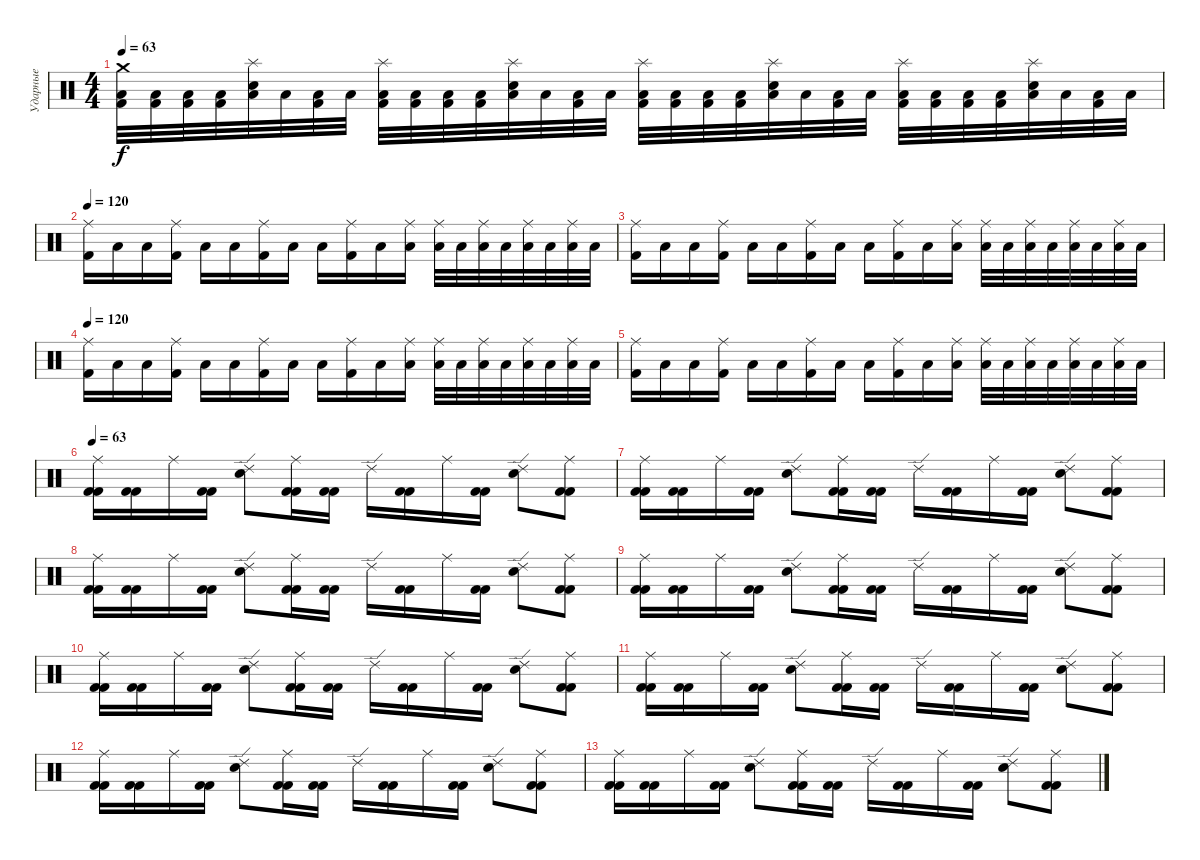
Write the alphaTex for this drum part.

\track ("Ударные" "Ударные") {instrument percussion}
\staff {score}
\articulation defaults
\ts (4 4)
\tempo 63
\clef neutral
\ks c
("Crash medium (hit)" "Low Floor Tom (hit)" "Kick (hit) 2").32{dy f} ("Low Floor Tom (hit)" "Kick (hit) 2").32 ("Low Floor Tom (hit)" "Kick (hit) 2").32 ("Low Floor Tom (hit)" "Kick (hit) 2").32 ("Splash (hit)" "Low Floor Tom (hit)" "Electric Snare (hit)").32 "Low Floor Tom (hit)".32 ("Low Floor Tom (hit)" "Kick (hit) 2").32 "Low Floor Tom (hit)".32 ("Splash (hit)" "Low Floor Tom (hit)" "Kick (hit) 2").32 ("Low Floor Tom (hit)" "Kick (hit) 2").32 ("Low Floor Tom (hit)" "Kick (hit) 2").32 ("Low Floor Tom (hit)" "Kick (hit) 2").32 ("Splash (hit)" "Low Floor Tom (hit)" "Electric Snare (hit)").32 "Low Floor Tom (hit)".32 ("Low Floor Tom (hit)" "Kick (hit) 2").32 "Low Floor Tom (hit)".32 ("Splash (hit)" "Low Floor Tom (hit)" "Kick (hit) 2").32 ("Low Floor Tom (hit)" "Kick (hit) 2").32 ("Low Floor Tom (hit)" "Kick (hit) 2").32 ("Low Floor Tom (hit)" "Kick (hit) 2").32 ("Splash (hit)" "Low Floor Tom (hit)" "Electric Snare (hit)").32 "Low Floor Tom (hit)".32 ("Low Floor Tom (hit)" "Kick (hit) 2").32 "Low Floor Tom (hit)".32 ("Splash (hit)" "Low Floor Tom (hit)" "Kick (hit) 2").32 ("Low Floor Tom (hit)" "Kick (hit) 2").32 ("Low Floor Tom (hit)" "Kick (hit) 2").32 ("Low Floor Tom (hit)" "Kick (hit) 2").32 ("Splash (hit)" "Low Floor Tom (hit)" "Electric Snare (hit)").32 "Low Floor Tom (hit)".32 ("Low Floor Tom (hit)" "Kick (hit) 2").32 "Low Floor Tom (hit)".32 |
\tempo 120
("Ride (middle)" "Kick (hit) 2").16 "Low Floor Tom (hit)".16 "Low Floor Tom (hit)".16 ("Ride (middle)" "Kick (hit) 2").16 "Low Floor Tom (hit)".16 "Low Floor Tom (hit)".16 ("Ride (middle)" "Kick (hit) 2").16 "Low Floor Tom (hit)".16 "Low Floor Tom (hit)".16 ("Ride (middle)" "Kick (hit) 2").16 "Low Floor Tom (hit)".16 ("Ride (middle)" "Low Floor Tom (hit)").16 ("Ride (middle)" "Low Floor Tom (hit)").32 "Low Floor Tom (hit)".32 ("Ride (middle)" "Low Floor Tom (hit)").32 "Low Floor Tom (hit)".32 ("Ride (middle)" "Low Floor Tom (hit)").32 "Low Floor Tom (hit)".32 ("Ride (middle)" "Low Floor Tom (hit)").32 "Low Floor Tom (hit)".32 |
("Ride (middle)" "Kick (hit) 2").16 "Low Floor Tom (hit)".16 "Low Floor Tom (hit)".16 ("Ride (middle)" "Kick (hit) 2").16 "Low Floor Tom (hit)".16 "Low Floor Tom (hit)".16 ("Ride (middle)" "Kick (hit) 2").16 "Low Floor Tom (hit)".16 "Low Floor Tom (hit)".16 ("Ride (middle)" "Kick (hit) 2").16 "Low Floor Tom (hit)".16 ("Ride (middle)" "Low Floor Tom (hit)").16 ("Ride (middle)" "Low Floor Tom (hit)").32 "Low Floor Tom (hit)".32 ("Ride (middle)" "Low Floor Tom (hit)").32 "Low Floor Tom (hit)".32 ("Ride (middle)" "Low Floor Tom (hit)").32 "Low Floor Tom (hit)".32 ("Ride (middle)" "Low Floor Tom (hit)").32 "Low Floor Tom (hit)".32 |
\tempo 120
("Ride (middle)" "Kick (hit) 2").16 "Low Floor Tom (hit)".16 "Low Floor Tom (hit)".16 ("Ride (middle)" "Kick (hit) 2").16 "Low Floor Tom (hit)".16 "Low Floor Tom (hit)".16 ("Ride (middle)" "Kick (hit) 2").16 "Low Floor Tom (hit)".16 "Low Floor Tom (hit)".16 ("Ride (middle)" "Kick (hit) 2").16 "Low Floor Tom (hit)".16 ("Ride (middle)" "Low Floor Tom (hit)").16 ("Ride (middle)" "Low Floor Tom (hit)").32 "Low Floor Tom (hit)".32 ("Ride (middle)" "Low Floor Tom (hit)").32 "Low Floor Tom (hit)".32 ("Ride (middle)" "Low Floor Tom (hit)").32 "Low Floor Tom (hit)".32 ("Ride (middle)" "Low Floor Tom (hit)").32 "Low Floor Tom (hit)".32 |
("Ride (middle)" "Kick (hit) 2").16 "Low Floor Tom (hit)".16 "Low Floor Tom (hit)".16 ("Ride (middle)" "Kick (hit) 2").16 "Low Floor Tom (hit)".16 "Low Floor Tom (hit)".16 ("Ride (middle)" "Kick (hit) 2").16 "Low Floor Tom (hit)".16 "Low Floor Tom (hit)".16 ("Ride (middle)" "Kick (hit) 2").16 "Low Floor Tom (hit)".16 ("Ride (middle)" "Low Floor Tom (hit)").16 ("Ride (middle)" "Low Floor Tom (hit)").32 "Low Floor Tom (hit)".32 ("Ride (middle)" "Low Floor Tom (hit)").32 "Low Floor Tom (hit)".32 ("Ride (middle)" "Low Floor Tom (hit)").32 "Low Floor Tom (hit)".32 ("Ride (middle)" "Low Floor Tom (hit)").32 "Low Floor Tom (hit)".32 |
\tempo 63
("Kick (hit) 2" "Ride (middle)" "Kick (hit) 2").16 ("Kick (hit) 2" "Kick (hit) 2").16 "Ride (middle)".16 ("Kick (hit) 2" "Kick (hit) 2").16 ("Ride (edge) 2" "Electric Snare (hit)").8 ("Kick (hit) 2" "Ride (middle)" "Kick (hit) 2").16 ("Kick (hit) 2" "Kick (hit) 2").16 "Ride (edge) 2".16 ("Kick (hit) 2" "Kick (hit) 2").16 "Ride (middle)".16 ("Kick (hit) 2" "Kick (hit) 2").16 ("Ride (edge) 2" "Electric Snare (hit)").8 ("Kick (hit) 2" "Ride (middle)" "Kick (hit) 2").8 |
("Kick (hit) 2" "Ride (middle)" "Kick (hit) 2").16 ("Kick (hit) 2" "Kick (hit) 2").16 "Ride (middle)".16 ("Kick (hit) 2" "Kick (hit) 2").16 ("Ride (edge) 2" "Electric Snare (hit)").8 ("Kick (hit) 2" "Ride (middle)" "Kick (hit) 2").16 ("Kick (hit) 2" "Kick (hit) 2").16 "Ride (edge) 2".16 ("Kick (hit) 2" "Kick (hit) 2").16 "Ride (middle)".16 ("Kick (hit) 2" "Kick (hit) 2").16 ("Ride (edge) 2" "Electric Snare (hit)").8 ("Kick (hit) 2" "Ride (middle)" "Kick (hit) 2").8 |
("Kick (hit) 2" "Ride (middle)" "Kick (hit) 2").16 ("Kick (hit) 2" "Kick (hit) 2").16 "Ride (middle)".16 ("Kick (hit) 2" "Kick (hit) 2").16 ("Ride (edge) 2" "Electric Snare (hit)").8 ("Kick (hit) 2" "Ride (middle)" "Kick (hit) 2").16 ("Kick (hit) 2" "Kick (hit) 2").16 "Ride (edge) 2".16 ("Kick (hit) 2" "Kick (hit) 2").16 "Ride (middle)".16 ("Kick (hit) 2" "Kick (hit) 2").16 ("Ride (edge) 2" "Electric Snare (hit)").8 ("Kick (hit) 2" "Ride (middle)" "Kick (hit) 2").8 |
("Kick (hit) 2" "Ride (middle)" "Kick (hit) 2").16 ("Kick (hit) 2" "Kick (hit) 2").16 "Ride (middle)".16 ("Kick (hit) 2" "Kick (hit) 2").16 ("Ride (edge) 2" "Electric Snare (hit)").8 ("Kick (hit) 2" "Ride (middle)" "Kick (hit) 2").16 ("Kick (hit) 2" "Kick (hit) 2").16 "Ride (edge) 2".16 ("Kick (hit) 2" "Kick (hit) 2").16 "Ride (middle)".16 ("Kick (hit) 2" "Kick (hit) 2").16 ("Ride (edge) 2" "Electric Snare (hit)").8 ("Kick (hit) 2" "Ride (middle)" "Kick (hit) 2").8 |
("Kick (hit) 2" "Ride (middle)" "Kick (hit) 2").16 ("Kick (hit) 2" "Kick (hit) 2").16 "Ride (middle)".16 ("Kick (hit) 2" "Kick (hit) 2").16 ("Ride (edge) 2" "Electric Snare (hit)").8 ("Kick (hit) 2" "Ride (middle)" "Kick (hit) 2").16 ("Kick (hit) 2" "Kick (hit) 2").16 "Ride (edge) 2".16 ("Kick (hit) 2" "Kick (hit) 2").16 "Ride (middle)".16 ("Kick (hit) 2" "Kick (hit) 2").16 ("Ride (edge) 2" "Electric Snare (hit)").8 ("Kick (hit) 2" "Ride (middle)" "Kick (hit) 2").8 |
("Kick (hit) 2" "Ride (middle)" "Kick (hit) 2").16 ("Kick (hit) 2" "Kick (hit) 2").16 "Ride (middle)".16 ("Kick (hit) 2" "Kick (hit) 2").16 ("Ride (edge) 2" "Electric Snare (hit)").8 ("Kick (hit) 2" "Ride (middle)" "Kick (hit) 2").16 ("Kick (hit) 2" "Kick (hit) 2").16 "Ride (edge) 2".16 ("Kick (hit) 2" "Kick (hit) 2").16 "Ride (middle)".16 ("Kick (hit) 2" "Kick (hit) 2").16 ("Ride (edge) 2" "Electric Snare (hit)").8 ("Kick (hit) 2" "Ride (middle)" "Kick (hit) 2").8 |
("Kick (hit) 2" "Ride (middle)" "Kick (hit) 2").16 ("Kick (hit) 2" "Kick (hit) 2").16 "Ride (middle)".16 ("Kick (hit) 2" "Kick (hit) 2").16 ("Ride (edge) 2" "Electric Snare (hit)").8 ("Kick (hit) 2" "Ride (middle)" "Kick (hit) 2").16 ("Kick (hit) 2" "Kick (hit) 2").16 "Ride (edge) 2".16 ("Kick (hit) 2" "Kick (hit) 2").16 "Ride (middle)".16 ("Kick (hit) 2" "Kick (hit) 2").16 ("Ride (edge) 2" "Electric Snare (hit)").8 ("Kick (hit) 2" "Ride (middle)" "Kick (hit) 2").8 |
("Kick (hit) 2" "Ride (middle)" "Kick (hit) 2").16 ("Kick (hit) 2" "Kick (hit) 2").16 "Ride (middle)".16 ("Kick (hit) 2" "Kick (hit) 2").16 ("Ride (edge) 2" "Electric Snare (hit)").8 ("Kick (hit) 2" "Ride (middle)" "Kick (hit) 2").16 ("Kick (hit) 2" "Kick (hit) 2").16 "Ride (edge) 2".16 ("Kick (hit) 2" "Kick (hit) 2").16 "Ride (middle)".16 ("Kick (hit) 2" "Kick (hit) 2").16 ("Ride (edge) 2" "Electric Snare (hit)").8 ("Kick (hit) 2" "Ride (middle)" "Kick (hit) 2").8
